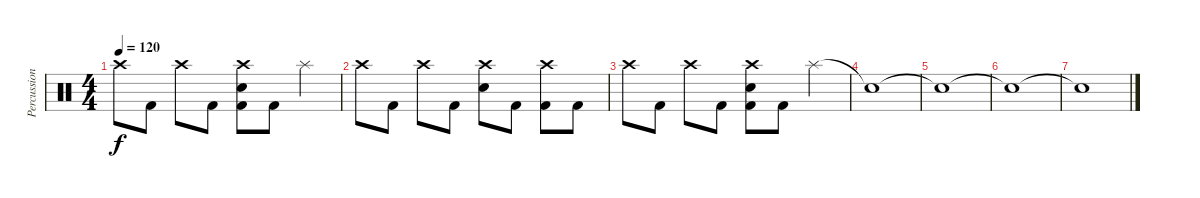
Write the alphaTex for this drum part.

\track ("Percussions" "Percussion") {instrument percussion}
\staff {score}
\articulation defaults
\ts (4 4)
\tempo 120
\clef neutral
\ks c "Crash high (hit)".8{dy f} "Kick (hit) 2".8 "Crash high (hit)".8 "Kick (hit) 2".8
("Electric Snare (hit)" "Crash high (hit)" "Kick (hit) 2").8 "Kick (hit) 2".8 "Splash (hit)".4 |
"Crash high (hit)".8 "Kick (hit) 2".8 "Crash high (hit)".8 "Kick (hit) 2".8 ("Electric Snare (hit)" "Crash high (hit)").8 "Kick (hit) 2".8 ("Crash high (hit)" "Kick (hit) 2").8 "Kick (hit) 2".8 |
"Crash high (hit)".8 "Kick (hit) 2".8 "Crash high (hit)".8 "Kick (hit) 2".8 ("Electric Snare (hit)" "Crash high (hit)" "Kick (hit) 2").8 "Kick (hit) 2".8 "Splash (hit)".4 |
"Snare (hit)"{t}.1 |
"Snare (hit)"{t}.1 |
"Snare (hit)"{t}.1 |
"Snare (hit)"{t}.1
